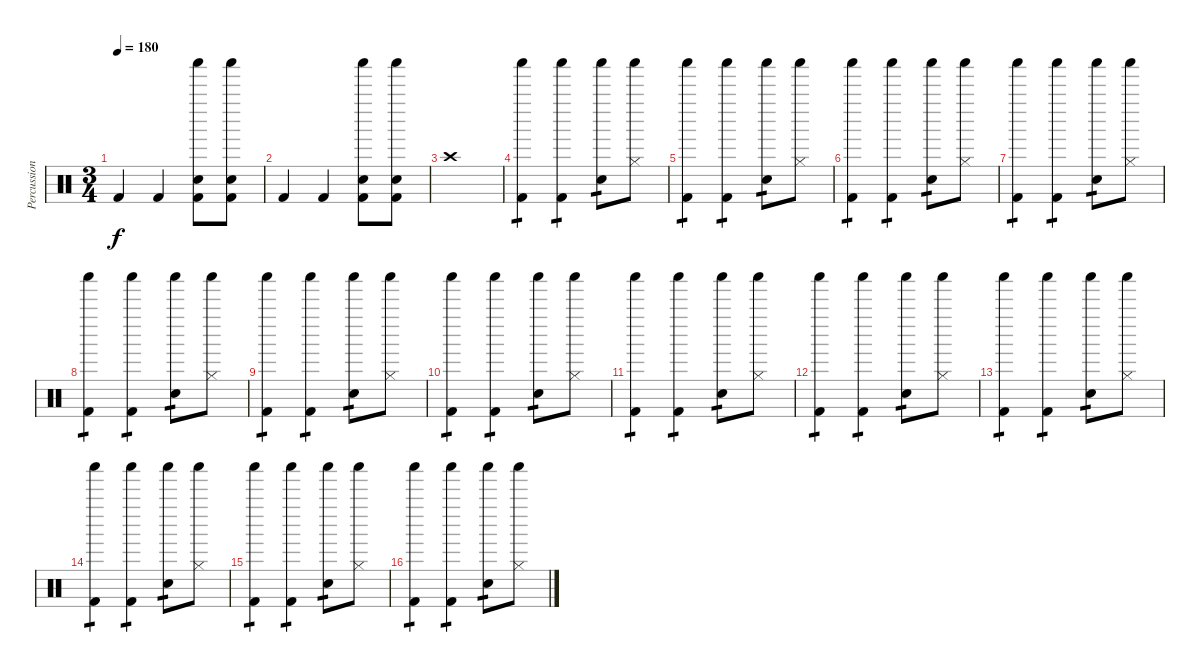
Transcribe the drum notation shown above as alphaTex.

\track ("Percussions" "Percussion") {instrument percussion}
\staff {score}
\articulation defaults
\ts (3 4)
\tempo 180
\clef neutral
\ks c "Kick (hit) 2".4{dy f} "Kick (hit) 2".4
("Kick (hit) 2" "Snare (hit) 2" "Shaker (hit)").8 ("Kick (hit) 2" "Snare (hit) 2" "Shaker (hit)").8 |
"Kick (hit) 2".4 "Kick (hit) 2".4 ("Kick (hit) 2" "Snare (hit) 2" "Shaker (hit)").8 ("Kick (hit) 2" "Snare (hit) 2" "Shaker (hit)").8 |
"Crash high (hit)".1 |
("Kick (hit) 2" "Shaker (hit)").4{tp 1} ("Kick (hit) 2" "Shaker (hit)").4{tp 1} ("Shaker (hit)" "Snare (hit) 2").8{tp 1} ("Shaker (hit)" "Hi-Hat (closed)").8 |
("Kick (hit) 2" "Shaker (hit)").4{tp 1} ("Kick (hit) 2" "Shaker (hit)").4{tp 1} ("Shaker (hit)" "Snare (hit) 2").8{tp 1} ("Shaker (hit)" "Hi-Hat (closed)").8 |
("Kick (hit) 2" "Shaker (hit)").4{tp 1} ("Kick (hit) 2" "Shaker (hit)").4{tp 1} ("Shaker (hit)" "Snare (hit) 2").8{tp 1} ("Shaker (hit)" "Hi-Hat (closed)").8 |
("Kick (hit) 2" "Shaker (hit)").4{tp 1} ("Kick (hit) 2" "Shaker (hit)").4{tp 1} ("Shaker (hit)" "Snare (hit) 2").8{tp 1} ("Shaker (hit)" "Hi-Hat (closed)").8 |
("Kick (hit) 2" "Shaker (hit)").4{tp 1} ("Kick (hit) 2" "Shaker (hit)").4{tp 1} ("Shaker (hit)" "Snare (hit) 2").8{tp 1} ("Shaker (hit)" "Hi-Hat (closed)").8 |
("Kick (hit) 2" "Shaker (hit)").4{tp 1} ("Kick (hit) 2" "Shaker (hit)").4{tp 1} ("Shaker (hit)" "Snare (hit) 2").8{tp 1} ("Shaker (hit)" "Hi-Hat (closed)").8 |
("Kick (hit) 2" "Shaker (hit)").4{tp 1} ("Kick (hit) 2" "Shaker (hit)").4{tp 1} ("Shaker (hit)" "Snare (hit) 2").8{tp 1} ("Shaker (hit)" "Hi-Hat (closed)").8 |
("Kick (hit) 2" "Shaker (hit)").4{tp 1} ("Kick (hit) 2" "Shaker (hit)").4{tp 1} ("Shaker (hit)" "Snare (hit) 2").8{tp 1} ("Shaker (hit)" "Hi-Hat (closed)").8 |
("Kick (hit) 2" "Shaker (hit)").4{tp 1} ("Kick (hit) 2" "Shaker (hit)").4{tp 1} ("Shaker (hit)" "Snare (hit) 2").8{tp 1} ("Shaker (hit)" "Hi-Hat (closed)").8 |
("Kick (hit) 2" "Shaker (hit)").4{tp 1} ("Kick (hit) 2" "Shaker (hit)").4{tp 1} ("Shaker (hit)" "Snare (hit) 2").8{tp 1} ("Shaker (hit)" "Hi-Hat (closed)").8 |
("Kick (hit) 2" "Shaker (hit)").4{tp 1} ("Kick (hit) 2" "Shaker (hit)").4{tp 1} ("Shaker (hit)" "Snare (hit) 2").8{tp 1} ("Shaker (hit)" "Hi-Hat (closed)").8 |
("Kick (hit) 2" "Shaker (hit)").4{tp 1} ("Kick (hit) 2" "Shaker (hit)").4{tp 1} ("Shaker (hit)" "Snare (hit) 2").8{tp 1} ("Shaker (hit)" "Hi-Hat (closed)").8 |
("Kick (hit) 2" "Shaker (hit)").4{tp 1} ("Kick (hit) 2" "Shaker (hit)").4{tp 1} ("Shaker (hit)" "Snare (hit) 2").8{tp 1} ("Shaker (hit)" "Hi-Hat (closed)").8
